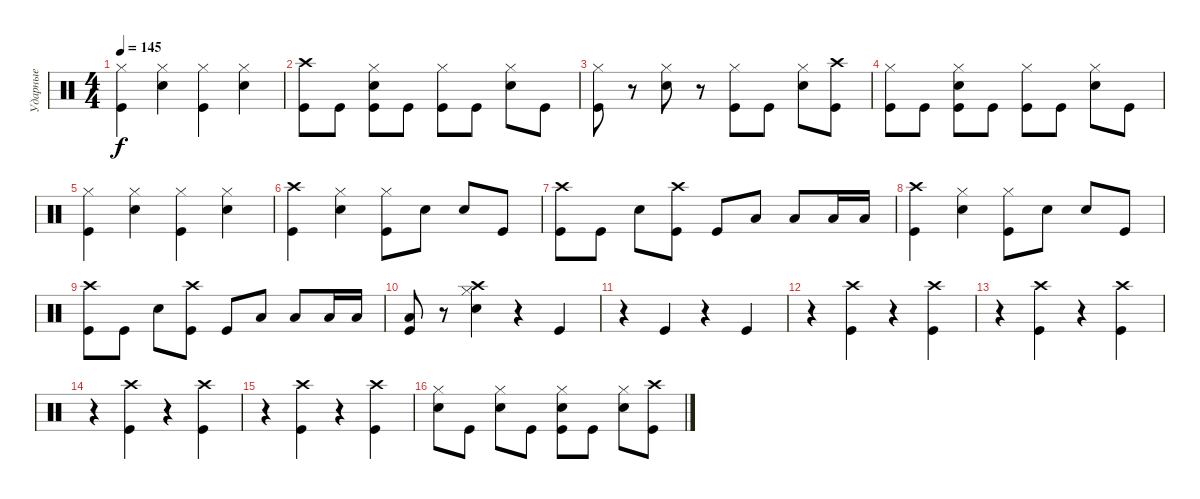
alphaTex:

\track ("Ударные" "Ударные") {instrument percussion}
\staff {score}
\articulation defaults
\ts (4 4)
\tempo 145
\clef neutral
\ks c
("Hi-Hat (closed)" "Kick (hit)").4{dy f} ("Hi-Hat (closed)" "Electric Snare (hit)").4 ("Hi-Hat (closed)" "Kick (hit)").4 ("Hi-Hat (closed)" "Electric Snare (hit)").4 |
("Crash high (hit)" "Kick (hit)").8 "Kick (hit)".8 ("Hi-Hat (closed)" "Electric Snare (hit)" "Kick (hit)").8 "Kick (hit)".8 ("Hi-Hat (closed)" "Kick (hit)").8 "Kick (hit)".8 ("Hi-Hat (closed)" "Electric Snare (hit)").8 "Kick (hit)".8 |
("Hi-Hat (closed)" "Kick (hit)").8 r.8 ("Hi-Hat (closed)" "Electric Snare (hit)").8 r.8 ("Hi-Hat (closed)" "Kick (hit)").8 "Kick (hit)".8 ("Hi-Hat (closed)" "Electric Snare (hit)").8 ("Crash high (hit)" "Kick (hit)").8 |
("Hi-Hat (closed)" "Kick (hit)").8 "Kick (hit)".8 ("Hi-Hat (closed)" "Electric Snare (hit)" "Kick (hit)").8 "Kick (hit)".8 ("Hi-Hat (closed)" "Kick (hit)").8 "Kick (hit)".8 ("Hi-Hat (closed)" "Electric Snare (hit)").8 "Kick (hit)".8 |
("Hi-Hat (closed)" "Kick (hit)").4 ("Hi-Hat (closed)" "Electric Snare (hit)").4 ("Hi-Hat (closed)" "Kick (hit)").4 ("Hi-Hat (closed)" "Electric Snare (hit)").4 |
("Crash high (hit)" "Kick (hit)").4 ("Hi-Hat (closed)" "Electric Snare (hit)").4 ("Hi-Hat (closed)" "Kick (hit)").8 "Electric Snare (hit)".8 "Electric Snare (hit)".8 "Kick (hit)".8 |
("Crash high (hit)" "Kick (hit)").8 "Kick (hit)".8 "Electric Snare (hit)".8 ("Crash high (hit)" "Kick (hit)").8 "Kick (hit)".8 "Low Tom (hit)".8 "Low Tom (hit)".8 "Low Tom (hit)".16 "Low Tom (hit)".16 |
("Crash high (hit)" "Kick (hit)").4 ("Hi-Hat (closed)" "Electric Snare (hit)").4 ("Hi-Hat (closed)" "Kick (hit)").8 "Electric Snare (hit)".8 "Electric Snare (hit)".8 "Kick (hit)".8 |
("Crash high (hit)" "Kick (hit)").8 "Kick (hit)".8 "Electric Snare (hit)".8 ("Crash high (hit)" "Kick (hit)").8 "Kick (hit)".8 "Low Tom (hit)".8 "Low Tom (hit)".8 "Low Tom (hit)".16 "Low Tom (hit)".16 |
("Low Tom (hit)" "Kick (hit)").8 r.8 ("Crash high (hit)" "Hi-Hat (closed)" "Electric Snare (hit)").4 r.4 "Kick (hit)".4 |
r.4 "Kick (hit)".4 r.4 "Kick (hit)".4 |
r.4 ("Crash high (hit)" "Kick (hit)").4 r.4 ("Crash high (hit)" "Kick (hit)").4 |
r.4 ("Crash high (hit)" "Kick (hit)").4 r.4 ("Crash high (hit)" "Kick (hit)").4 |
r.4 ("Crash high (hit)" "Kick (hit)").4 r.4 ("Crash high (hit)" "Kick (hit)").4 |
r.4 ("Crash high (hit)" "Kick (hit)").4 r.4 ("Crash high (hit)" "Kick (hit)").4 |
("Hi-Hat (closed)" "Electric Snare (hit)").8 "Kick (hit)".8 ("Hi-Hat (closed)" "Electric Snare (hit)").8 "Kick (hit)".8 ("Hi-Hat (closed)" "Electric Snare (hit)" "Kick (hit)").8 "Kick (hit)".8 ("Hi-Hat (closed)" "Electric Snare (hit)").8 ("Crash high (hit)" "Kick (hit)").8
